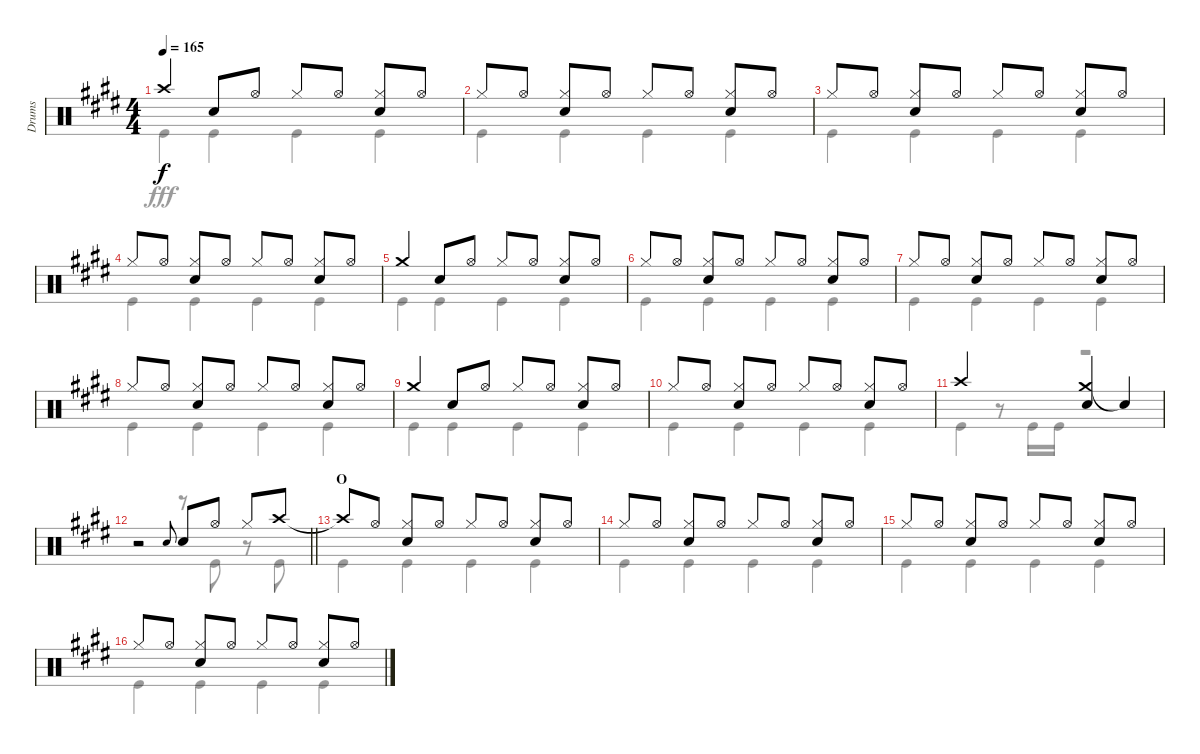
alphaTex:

\track ("Drums" "Drums") {instrument percussion}
\staff {score}
\articulation defaults
\voice
\ts (4 4)
\tempo 165
\clef neutral
\ks e "Crash high (hit)".4{dy f} "Snare (hit) 2".8 "Hi-Hat (open)".8 "Hi-Hat (closed)".8 "Hi-Hat (open)".8
("Hi-Hat (closed)" "Snare (hit) 2").8 "Hi-Hat (open)".8 |
"Hi-Hat (closed)".8 "Hi-Hat (open)".8 ("Hi-Hat (closed)" "Snare (hit) 2").8 "Hi-Hat (open)".8 "Hi-Hat (closed)".8 "Hi-Hat (open)".8 ("Hi-Hat (closed)" "Snare (hit) 2").8 "Hi-Hat (open)".8 |
"Hi-Hat (closed)".8 "Hi-Hat (open)".8 ("Hi-Hat (closed)" "Snare (hit) 2").8 "Hi-Hat (open)".8 "Hi-Hat (closed)".8 "Hi-Hat (open)".8 ("Hi-Hat (closed)" "Snare (hit) 2").8 "Hi-Hat (open)".8 |
"Hi-Hat (closed)".8 "Hi-Hat (open)".8 ("Hi-Hat (closed)" "Snare (hit) 2").8 "Hi-Hat (open)".8 "Hi-Hat (closed)".8 "Hi-Hat (open)".8 ("Hi-Hat (closed)" "Snare (hit) 2").8 "Hi-Hat (open)".8 |
"Crash medium (hit)".4 "Snare (hit) 2".8 "Hi-Hat (open)".8 "Hi-Hat (closed)".8 "Hi-Hat (open)".8 ("Hi-Hat (closed)" "Snare (hit) 2").8 "Hi-Hat (open)".8 |
"Hi-Hat (closed)".8 "Hi-Hat (open)".8 ("Hi-Hat (closed)" "Snare (hit) 2").8 "Hi-Hat (open)".8 "Hi-Hat (closed)".8 "Hi-Hat (open)".8 ("Hi-Hat (closed)" "Snare (hit) 2").8 "Hi-Hat (open)".8 |
"Hi-Hat (closed)".8 "Hi-Hat (open)".8 ("Hi-Hat (closed)" "Snare (hit) 2").8 "Hi-Hat (open)".8 "Hi-Hat (closed)".8 "Hi-Hat (open)".8 ("Hi-Hat (closed)" "Snare (hit) 2").8 "Hi-Hat (open)".8 |
"Hi-Hat (closed)".8 "Hi-Hat (open)".8 ("Hi-Hat (closed)" "Snare (hit) 2").8 "Hi-Hat (open)".8 "Hi-Hat (closed)".8 "Hi-Hat (open)".8 ("Hi-Hat (closed)" "Snare (hit) 2").8 "Hi-Hat (open)".8 |
"Crash medium (hit)".4 "Snare (hit) 2".8 "Hi-Hat (open)".8 "Hi-Hat (closed)".8 "Hi-Hat (open)".8 ("Hi-Hat (closed)" "Snare (hit) 2").8 "Hi-Hat (open)".8 |
"Hi-Hat (closed)".8 "Hi-Hat (open)".8 ("Hi-Hat (closed)" "Snare (hit) 2").8 "Hi-Hat (open)".8 "Hi-Hat (closed)".8 "Hi-Hat (open)".8 ("Hi-Hat (closed)" "Snare (hit) 2").8 "Hi-Hat (open)".8 |
"Crash high (hit)".2 ("Crash medium (hit)" "Snare (hit) 2").4 "Snare (hit)"{t}.4 |
\barLineRight lightlight
r.2 "Snare (hit) 2".8{gr onbeat} "Snare (hit) 2".8 "Hi-Hat (open)".8 "Hi-Hat (closed)".8 "Crash high (hit)".8 |
\section ("" "O")
"Crash high (hit)"{t}.8 "Hi-Hat (open)".8 ("Hi-Hat (closed)" "Snare (hit) 2").8 "Hi-Hat (open)".8 "Hi-Hat (closed)".8 "Hi-Hat (open)".8 ("Hi-Hat (closed)" "Snare (hit) 2").8 "Hi-Hat (open)".8 |
"Hi-Hat (closed)".8 "Hi-Hat (open)".8 ("Hi-Hat (closed)" "Snare (hit) 2").8 "Hi-Hat (open)".8 "Hi-Hat (closed)".8 "Hi-Hat (open)".8 ("Hi-Hat (closed)" "Snare (hit) 2").8 "Hi-Hat (open)".8 |
"Hi-Hat (closed)".8 "Hi-Hat (open)".8 ("Hi-Hat (closed)" "Snare (hit) 2").8 "Hi-Hat (open)".8 "Hi-Hat (closed)".8 "Hi-Hat (open)".8 ("Hi-Hat (closed)" "Snare (hit) 2").8 "Hi-Hat (open)".8 |
"Hi-Hat (closed)".8 "Hi-Hat (open)".8 ("Hi-Hat (closed)" "Snare (hit) 2").8 "Hi-Hat (open)".8 "Hi-Hat (closed)".8 "Hi-Hat (open)".8 ("Hi-Hat (closed)" "Snare (hit) 2").8 "Hi-Hat (open)".8
\voice
\clef neutral
\ottava regular
\simile none
\ks e "Kick (hit)".4{dy fff} "Kick (hit)".4 "Kick (hit)".4 "Kick (hit)".4
|
"Kick (hit)".4 "Kick (hit)".4 "Kick (hit)".4 "Kick (hit)".4 |
"Kick (hit)".4 "Kick (hit)".4 "Kick (hit)".4 "Kick (hit)".4 |
"Kick (hit)".4 "Kick (hit)".4 "Kick (hit)".4 "Kick (hit)".4 |
"Kick (hit)".4 "Kick (hit)".4 "Kick (hit)".4 "Kick (hit)".4 |
"Kick (hit)".4 "Kick (hit)".4 "Kick (hit)".4 "Kick (hit)".4 |
"Kick (hit)".4 "Kick (hit)".4 "Kick (hit)".4 "Kick (hit)".4 |
"Kick (hit)".4 "Kick (hit)".4 "Kick (hit)".4 "Kick (hit)".4 |
"Kick (hit)".4 "Kick (hit)".4 "Kick (hit)".4 "Kick (hit)".4 |
"Kick (hit)".4 "Kick (hit)".4 "Kick (hit)".4 "Kick (hit)".4 |
"Kick (hit)".4 r.8 "Kick (hit)".16 "Kick (hit)".16 r.2 |
\barLineRight lightlight
r.2 r.8 "Kick (hit)".8 r.8 "Kick (hit)".8 |
"Kick (hit)".4 "Kick (hit)".4 "Kick (hit)".4 "Kick (hit)".4 |
"Kick (hit)".4 "Kick (hit)".4 "Kick (hit)".4 "Kick (hit)".4 |
"Kick (hit)".4 "Kick (hit)".4 "Kick (hit)".4 "Kick (hit)".4 |
"Kick (hit)".4 "Kick (hit)".4 "Kick (hit)".4 "Kick (hit)".4
